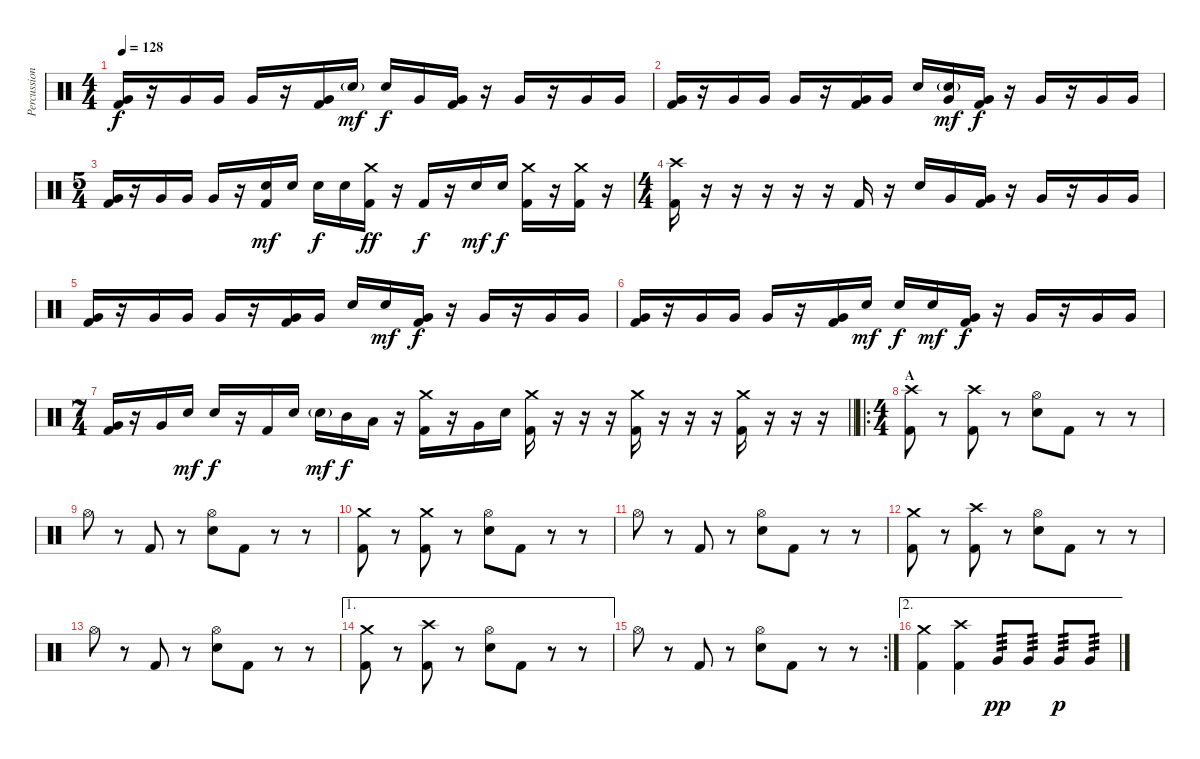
\track ("Percussion" "Percussion") {instrument percussion}
\staff {score}
\articulation defaults
\ts (4 4)
\tempo 128
\clef neutral
\ks c
("Very Low Tom (hit)" "Kick (hit) 2").16{dy f} r.16 "Very Low Tom (hit)".16 "Very Low Tom (hit)".16 "Very Low Tom (hit)".16 r.16 ("Very Low Tom (hit)" "Kick (hit) 2").16 "Snare (hit) 2"{g}.16{dy mf} "Snare (hit) 2".16{dy f} "Very Low Tom (hit)".16 ("Very Low Tom (hit)" "Kick (hit) 2").16 r.16 "Very Low Tom (hit)".16 r.16 "Very Low Tom (hit)".16 "Very Low Tom (hit)".16 |
("Very Low Tom (hit)" "Kick (hit) 2").16 r.16 "Very Low Tom (hit)".16 "Very Low Tom (hit)".16 "Very Low Tom (hit)".16 r.16 ("Very Low Tom (hit)" "Kick (hit) 2").16 "Very Low Tom (hit)".16 "Snare (hit) 2".16 ("Very Low Tom (hit)" "Snare (hit) 2"{g}).16{dy mf} ("Very Low Tom (hit)" "Kick (hit) 2").16{dy f} r.16 "Very Low Tom (hit)".16 r.16 "Very Low Tom (hit)".16 "Very Low Tom (hit)".16 |
\ts (5 4)
("Very Low Tom (hit)" "Kick (hit) 2").16 r.16 "Very Low Tom (hit)".16 "Very Low Tom (hit)".16 "Very Low Tom (hit)".16 r.16 ("Snare (hit) 2" "Kick (hit) 2").16{dy mf} "Snare (hit) 2".16 "Snare (hit) 2".16{dy f} "Snare (hit) 2".16 ("Crash medium (hit)" "Kick (hit) 2").16{dy ff} r.16 "Kick (hit) 2".16{dy f} r.16 "Snare (hit) 2".16{dy mf} "Snare (hit) 2".16{dy f} ("Crash medium (hit)" "Kick (hit) 2").16 r.16 ("Crash medium (hit)" "Kick (hit) 2").16 r.16 |
\ts (4 4)
("Crash high (hit)" "Kick (hit) 2").16 r.16 r.16 r.16 r.16 r.16 "Kick (hit) 2".16 r.16 "Snare (hit) 2".16 "Very Low Tom (hit)".16 ("Very Low Tom (hit)" "Kick (hit) 2").16 r.16 "Very Low Tom (hit)".16 r.16 "Very Low Tom (hit)".16 "Very Low Tom (hit)".16 |
("Very Low Tom (hit)" "Kick (hit) 2").16 r.16 "Very Low Tom (hit)".16 "Very Low Tom (hit)".16 "Very Low Tom (hit)".16 r.16 ("Very Low Tom (hit)" "Kick (hit) 2").16 "Very Low Tom (hit)".16 "Snare (hit) 2".16 "Snare (hit) 2".16{dy mf} ("Very Low Tom (hit)" "Kick (hit) 2").16{dy f} r.16 "Very Low Tom (hit)".16 r.16 "Very Low Tom (hit)".16 "Very Low Tom (hit)".16 |
("Very Low Tom (hit)" "Kick (hit) 2").16 r.16 "Very Low Tom (hit)".16 "Very Low Tom (hit)".16 "Very Low Tom (hit)".16 r.16 ("Very Low Tom (hit)" "Kick (hit) 2").16 "Snare (hit) 2".16{dy mf} "Snare (hit) 2".16{dy f} "Snare (hit) 2".16{dy mf} ("Very Low Tom (hit)" "Kick (hit) 2").16{dy f} r.16 "Very Low Tom (hit)".16 r.16 "Very Low Tom (hit)".16 "Very Low Tom (hit)".16 |
\ts (7 4)
\barLineRight lightlight
("Very Low Tom (hit)" "Kick (hit) 2").16 r.16 "Very Low Tom (hit)".16 "Snare (hit) 2".16{dy mf} "Snare (hit) 2".16{dy f} r.16 "Kick (hit) 2".16 "Snare (hit) 2".16 "Snare (hit) 2"{g}.16{dy mf} "Mid Tom (hit)".16{dy f} "Low Tom (hit)".16 r.16 ("Crash medium (hit)" "Kick (hit) 2").16 r.16 "Very Low Tom (hit)".16 "Snare (hit) 2".16 ("Crash medium (hit)" "Kick (hit) 2").16 r.16 r.16 r.16 ("Crash medium (hit)" "Kick (hit) 2").16 r.16 r.16 r.16 ("Crash medium (hit)" "Kick (hit) 2").16 r.16 r.16 r.16 |
\ro
\ts (4 4)
\section ("" "A")
("Crash high (hit)" "Kick (hit) 2").8 r.8 ("Crash high (hit)" "Kick (hit) 2").8 r.8 ("Hi-Hat (open)" "Snare (hit) 2").8 "Kick (hit) 2".8 r.8 r.8 |
"Hi-Hat (open)".8 r.8 "Kick (hit) 2".8 r.8 ("Hi-Hat (open)" "Snare (hit) 2").8 "Kick (hit) 2".8 r.8 r.8 |
("Crash medium (hit)" "Kick (hit) 2").8 r.8 ("Crash medium (hit)" "Kick (hit) 2").8 r.8 ("Hi-Hat (open)" "Snare (hit) 2").8 "Kick (hit) 2".8 r.8 r.8 |
"Hi-Hat (open)".8 r.8 "Kick (hit) 2".8 r.8 ("Hi-Hat (open)" "Snare (hit) 2").8 "Kick (hit) 2".8 r.8 r.8 |
("Crash medium (hit)" "Kick (hit) 2").8 r.8 ("Crash high (hit)" "Kick (hit) 2").8 r.8 ("Hi-Hat (open)" "Snare (hit) 2").8 "Kick (hit) 2".8 r.8 r.8 |
"Hi-Hat (open)".8 r.8 "Kick (hit) 2".8 r.8 ("Hi-Hat (open)" "Snare (hit) 2").8 "Kick (hit) 2".8 r.8 r.8 |
\ae 1
("Crash medium (hit)" "Kick (hit) 2").8 r.8 ("Crash high (hit)" "Kick (hit) 2").8 r.8 ("Hi-Hat (open)" "Snare (hit) 2").8 "Kick (hit) 2".8 r.8 r.8 |
\rc 2 "Hi-Hat (open)".8
r.8 "Kick (hit) 2".8 r.8 ("Hi-Hat (open)" "Snare (hit) 2").8 "Kick (hit) 2".8 r.8 r.8 |
\ae 2
("Crash medium (hit)" "Kick (hit) 2").4 ("Crash high (hit)" "Kick (hit) 2").4 "Very Low Tom (hit)".8{tp 3 dy pp} "Very Low Tom (hit)".8{tp 3} "Very Low Tom (hit)".8{tp 3 dy p} "Very Low Tom (hit)".8{tp 3}
